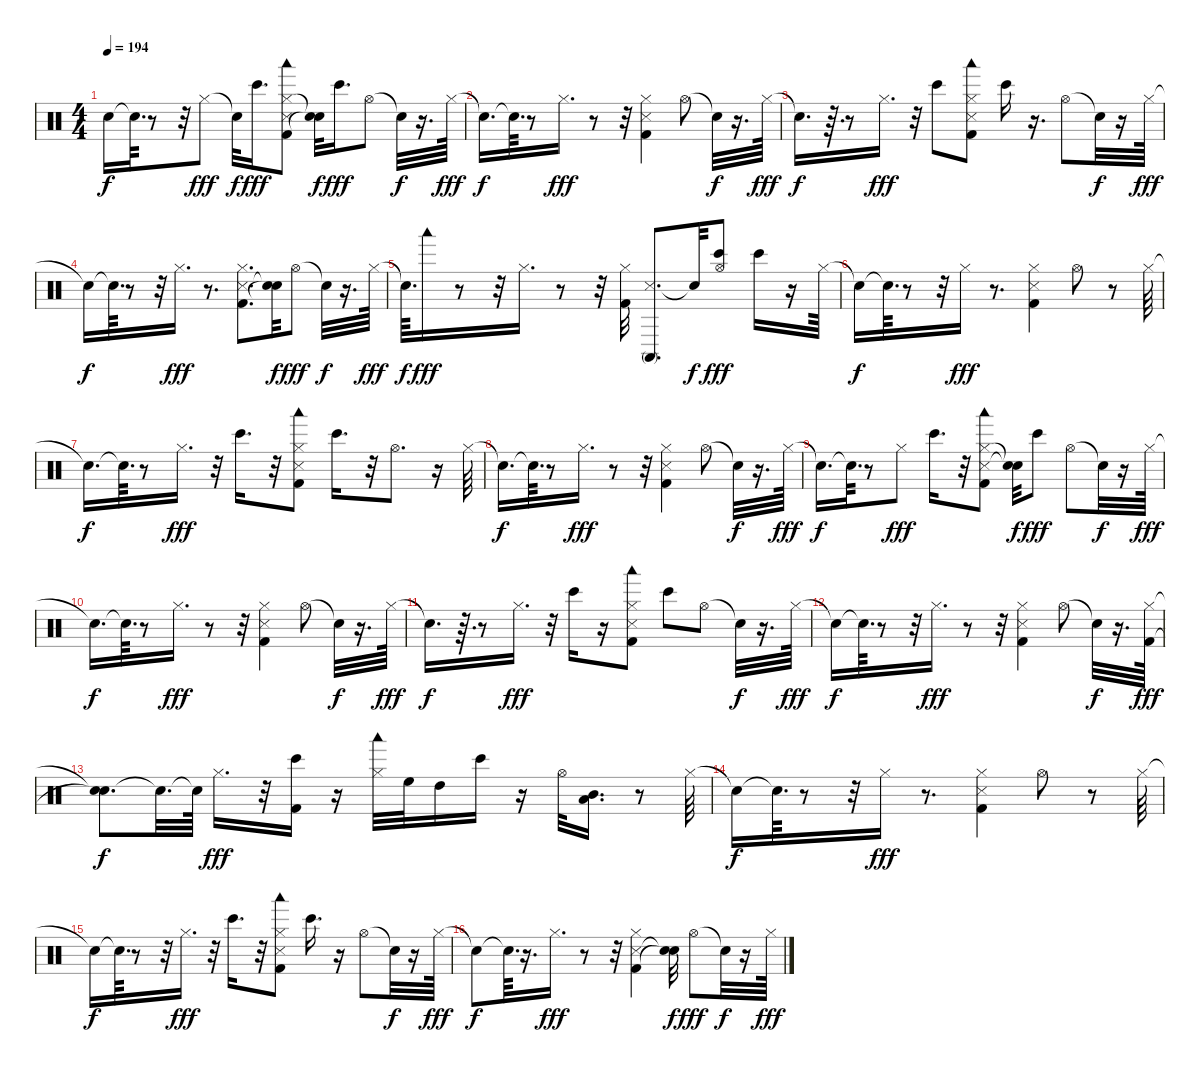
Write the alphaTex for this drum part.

\track "" {instrument percussion}
\staff {score}
\articulation defaults
\ts (4 4)
\tempo 194
\clef neutral
\ks c "Snare (hit)"{t}.16{dy f} "Snare (hit)"{t}.64{d}
r.8 r.32 "Hi-Hat (closed)".8{dy fff} "Snare (hit)"{t}.32{dy f} "Bongo High (hit)".16{d dy fff} ("Kick (hit) 2" "Hi-Hat (closed)" "Snare (side stick) 3" "Woodblock low (hit)").8 ("Snare (hit)"{t} "Snare (hit)"{t}).32{dy f} "Bongo High (hit)".16{d dy fff} "Hi-Hat (open)".8 "Snare (hit)"{t}.32{dy f} r.16{d} "Hi-Hat (closed)".64{dy fff} |
"Snare (hit)"{t}.16{d dy f} "Snare (hit)"{t}.64{d} r.8 "Hi-Hat (closed)".16{d dy fff} r.8 r.32 ("Kick (hit) 2" "Snare (side stick) 3" "Hi-Hat (closed)").4 "Hi-Hat (open)".8 "Snare (hit)"{t}.32{dy f} r.16{d} "Hi-Hat (closed)".64{dy fff} |
"Snare (hit)"{t}.16{d dy f} r.64{d} r.8 "Hi-Hat (closed)".16{d dy fff} r.32 "Bongo High (hit)".8 ("Kick (hit) 2" "Snare (side stick) 3" "Hi-Hat (closed)" "Woodblock low (hit)").8 "Bongo High (hit)".16 r.16{d} "Hi-Hat (open)".8 "Snare (hit)"{t}.32{dy f} r.16 "Hi-Hat (closed)".64{dy fff} |
"Snare (hit)"{t}.16{dy f} "Snare (hit)"{t}.64{d} r.8 r.32 "Hi-Hat (closed)".16{d dy fff} r.8{d} ("Kick (hit) 2" "Snare (side stick) 3" "Hi-Hat (closed)").8{d} ("Snare (hit)"{t} "Snare (hit)"{t}).32{dy f} "Hi-Hat (open)".8{dy fff} "Snare (hit)"{t}.32{dy f} r.16{d} "Hi-Hat (closed)".64{dy fff} |
"Snare (hit)"{t}.64{d dy f} "Woodblock low (hit)".16{dy fff} r.8 r.32 "Hi-Hat (closed)".16{d} r.8 r.32 ("Kick (hit) 2" "Hi-Hat (closed)").32 ("Snare (side stick) 3" "Conga high (mute)").8{d} "Snare (hit)"{t}.32{dy f} ("Hi-Hat (open)" "Bongo High (hit)").8{dy fff} "Bongo High (hit)".16 r.16 "Hi-Hat (closed)".64 |
"Snare (hit)"{t}.16{dy f} "Snare (hit)"{t}.64{d} r.8 r.32 "Hi-Hat (closed)".16{dy fff} r.8{d} ("Snare (side stick) 3" "Kick (hit) 2" "Hi-Hat (closed)").4 "Hi-Hat (open)".8 r.8 "Hi-Hat (closed)".64 |
"Snare (hit)"{t}.16{d dy f} "Snare (hit)"{t}.64{d} r.8 "Hi-Hat (closed)".16{d dy fff} r.32 "Bongo High (hit)".16{d} r.32 ("Snare (side stick) 3" "Kick (hit) 2" "Hi-Hat (closed)" "Woodblock low (hit)").8 "Bongo High (hit)".16{d} r.32 "Hi-Hat (open)".8{d} r.16 "Hi-Hat (closed)".64 |
"Snare (hit)"{t}.16{d dy f} "Snare (hit)"{t}.64{d} r.8 "Hi-Hat (closed)".16{d dy fff} r.8 r.32 ("Snare (side stick) 3" "Kick (hit) 2" "Hi-Hat (closed)").4 "Hi-Hat (open)".8 "Snare (hit)"{t}.32{dy f} r.16{d} "Hi-Hat (closed)".64{dy fff} |
"Snare (hit)"{t}.16{d dy f} "Snare (hit)"{t}.64{d} r.8 "Hi-Hat (closed)".8{dy fff} "Bongo High (hit)".16{d} r.32 ("Hi-Hat (closed)" "Snare (side stick) 3" "Kick (hit) 2" "Woodblock low (hit)").8 ("Snare (hit)"{t} "Snare (hit)"{t}).32{dy f} "Bongo High (hit)".8{dy fff} "Hi-Hat (open)".8 "Snare (hit)"{t}.32{dy f} r.16 "Hi-Hat (closed)".64{dy fff} |
"Snare (hit)"{t}.16{d dy f} "Snare (hit)"{t}.64{d} r.8 "Hi-Hat (closed)".16{d dy fff} r.8 r.32 ("Snare (side stick) 3" "Kick (hit) 2" "Hi-Hat (closed)").4 "Hi-Hat (open)".8 "Snare (hit)"{t}.32{dy f} r.16{d} "Hi-Hat (closed)".64{dy fff} |
"Snare (hit)"{t}.16{d dy f} r.64{d} r.8 "Hi-Hat (closed)".16{d dy fff} r.32 "Bongo High (hit)".16 r.16 ("Snare (side stick) 3" "Kick (hit) 2" "Hi-Hat (closed)" "Woodblock low (hit)").8 "Bongo High (hit)".8 "Hi-Hat (open)".8 "Snare (hit)"{t}.32{dy f} r.16{d} "Hi-Hat (closed)".64{dy fff} |
"Snare (hit)"{t}.16{dy f} "Snare (hit)"{t}.64{d} r.8 r.32 "Hi-Hat (closed)".16{d dy fff} r.8 r.32 ("Kick (hit) 2" "Snare (side stick) 3" "Hi-Hat (closed)").4 "Hi-Hat (open)".8 "Snare (hit)"{t}.32{dy f} r.16{d} ("Kick (hit) 2" "Hi-Hat (closed)").64{dy fff} |
("Snare (hit)"{t} "Snare (hit)"{t}).8{d dy f} "Snare (hit)"{t}.32{d} "Snare (hit)"{t}.64 "Hi-Hat (closed)".16{d dy fff} r.32 ("Kick (hit) 2" "Bongo High (hit)").16 r.16 ("Hi-Hat (closed)" "Woodblock low (hit)").32 "High Floor Tom (hit)".32 "High Tom (hit)".16 "Bongo High (hit)".16 r.16 "Hi-Hat (open)".32 ("Mid Tom (hit)" "Low Tom (hit)").16{d} r.8 "Hi-Hat (closed)".64 |
"Snare (hit)"{t}.16{dy f} "Snare (hit)"{t}.64{d} r.8 r.32 "Hi-Hat (closed)".16{dy fff} r.8{d} ("Snare (side stick) 3" "Kick (hit) 2" "Hi-Hat (closed)").4 "Hi-Hat (open)".8 r.8 "Hi-Hat (closed)".64 |
"Snare (hit)"{t}.16{dy f} "Snare (hit)"{t}.64{d} r.8 r.32 "Hi-Hat (closed)".16{d dy fff} r.32 "Bongo High (hit)".16{d} r.32 ("Snare (side stick) 3" "Kick (hit) 2" "Hi-Hat (closed)" "Woodblock low (hit)").8 "Bongo High (hit)".16{d} r.16 "Hi-Hat (open)".8 "Snare (hit)"{t}.32{dy f} r.16 "Hi-Hat (closed)".64{dy fff} |
"Snare (hit)"{t}.8{dy f} "Snare (hit)"{t}.64{d} r.16{d} "Hi-Hat (closed)".16{d dy fff} r.8 r.32 ("Snare (side stick) 3" "Kick (hit) 2" "Hi-Hat (closed)").4 ("Snare (hit)"{t} "Snare (hit)"{t}).32{dy f} "Hi-Hat (open)".8{dy fff} "Snare (hit)"{t}.32{dy f} r.16 "Hi-Hat (closed)".64{dy fff}
